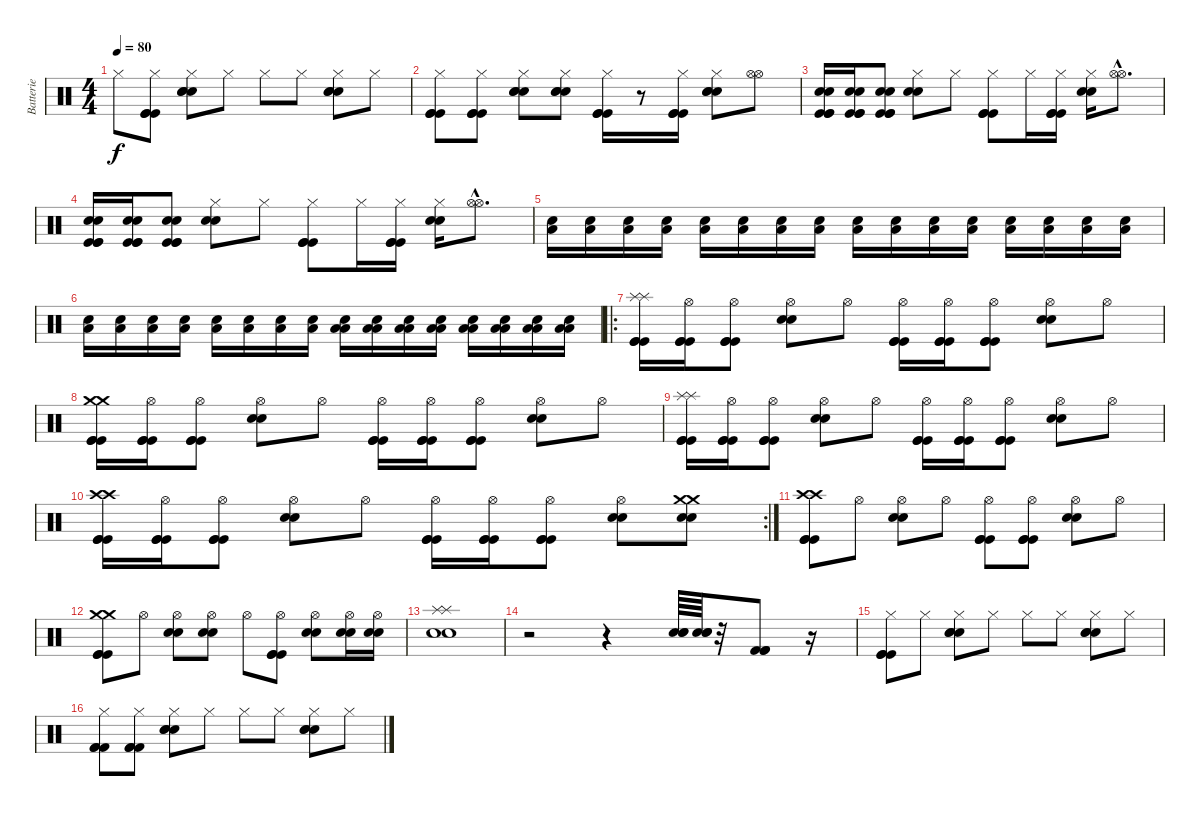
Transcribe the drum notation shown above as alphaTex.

\track ("Batterie" "Batterie") {instrument percussion}
\staff {score}
\articulation defaults
\ts (4 4)
\tempo 80
\clef neutral
\ks c "Hi-Hat (closed)".8{dy f}
("Hi-Hat (closed)" "Kick (hit)" "Kick (hit)" "Kick (hit)").8 ("Hi-Hat (closed)" "Snare (hit) 2" "Snare (hit) 2" "Snare (hit) 2").8 "Hi-Hat (closed)".8 "Hi-Hat (closed)".8 "Hi-Hat (closed)".8 ("Hi-Hat (closed)" "Snare (hit) 2" "Snare (hit) 2" "Snare (hit) 2").8 "Hi-Hat (closed)".8 |
("Hi-Hat (closed)" "Kick (hit)" "Kick (hit)" "Kick (hit)").8 ("Hi-Hat (closed)" "Kick (hit)" "Kick (hit)" "Kick (hit)").8 ("Hi-Hat (closed)" "Snare (hit) 2" "Snare (hit) 2" "Snare (hit) 2").8 ("Hi-Hat (closed)" "Snare (hit) 2" "Snare (hit) 2" "Snare (hit) 2").8 ("Hi-Hat (closed)" "Kick (hit)" "Kick (hit)" "Kick (hit)").16 r.8 ("Hi-Hat (closed)" "Kick (hit)" "Kick (hit)" "Kick (hit)").16 ("Hi-Hat (closed)" "Snare (hit) 2" "Snare (hit) 2" "Snare (hit) 2").8 ("Hi-Hat (open)" "Hi-Hat (open)").8 |
("Kick (hit)" "Snare (hit) 2" "Kick (hit)" "Snare (hit) 2" "Kick (hit)").16 ("Kick (hit)" "Snare (hit) 2" "Kick (hit)" "Snare (hit) 2" "Kick (hit)").16 ("Kick (hit)" "Snare (hit) 2" "Kick (hit)" "Snare (hit) 2" "Kick (hit)").8 ("Snare (hit) 2" "Hi-Hat (closed)" "Snare (hit) 2").8 "Hi-Hat (closed)".8 ("Kick (hit)" "Hi-Hat (closed)" "Kick (hit)" "Kick (hit)").8 "Hi-Hat (closed)".16 ("Kick (hit)" "Hi-Hat (closed)" "Kick (hit)" "Kick (hit)").16 ("Snare (hit) 2" "Hi-Hat (closed)" "Snare (hit) 2").16 ("Hi-Hat (open)"{hac} "Hi-Hat (open)"{hac}).8{d} |
("Kick (hit)" "Snare (hit) 2" "Kick (hit)" "Kick (hit)" "Snare (hit) 2").16 ("Kick (hit)" "Snare (hit) 2" "Kick (hit)" "Kick (hit)" "Snare (hit) 2").16 ("Kick (hit)" "Snare (hit) 2" "Kick (hit)" "Kick (hit)" "Snare (hit) 2").8 ("Snare (hit) 2" "Hi-Hat (closed)" "Snare (hit) 2").8 "Hi-Hat (closed)".8 ("Kick (hit)" "Hi-Hat (closed)" "Kick (hit)" "Kick (hit)").8 "Hi-Hat (closed)".16 ("Kick (hit)" "Hi-Hat (closed)" "Kick (hit)" "Kick (hit)").16 ("Snare (hit) 2" "Hi-Hat (closed)" "Snare (hit) 2").16 ("Hi-Hat (open)"{hac} "Hi-Hat (open)"{hac}).8{d} |
("Snare (hit) 2" "Low Floor Tom (hit)").16 ("Snare (hit) 2" "Low Floor Tom (hit)").16 ("Snare (hit) 2" "Low Floor Tom (hit)").16 ("Snare (hit) 2" "Low Floor Tom (hit)").16 ("Snare (hit) 2" "Low Floor Tom (hit)").16 ("Snare (hit) 2" "Low Floor Tom (hit)").16 ("Snare (hit) 2" "Low Floor Tom (hit)").16 ("Snare (hit) 2" "Low Floor Tom (hit)").16 ("Snare (hit) 2" "Low Floor Tom (hit)").16 ("Snare (hit) 2" "Low Floor Tom (hit)").16 ("Snare (hit) 2" "Low Floor Tom (hit)").16 ("Snare (hit) 2" "Low Floor Tom (hit)").16 ("Snare (hit) 2" "Low Floor Tom (hit)").16 ("Snare (hit) 2" "Low Floor Tom (hit)").16 ("Snare (hit) 2" "Low Floor Tom (hit)").16 ("Snare (hit) 2" "Low Floor Tom (hit)").16 |
("Snare (hit) 2" "Low Floor Tom (hit)").16 ("Snare (hit) 2" "Low Floor Tom (hit)").16 ("Snare (hit) 2" "Low Floor Tom (hit)").16 ("Snare (hit) 2" "Low Floor Tom (hit)").16 ("Snare (hit) 2" "Low Floor Tom (hit)").16 ("Snare (hit) 2" "Low Floor Tom (hit)").16 ("Snare (hit) 2" "Low Floor Tom (hit)").16 ("Snare (hit) 2" "Low Floor Tom (hit)").16 ("Snare (hit) 2" "Low Floor Tom (hit)" "Low Floor Tom (hit)").16 ("Snare (hit) 2" "Low Floor Tom (hit)" "Low Floor Tom (hit)").16 ("Snare (hit) 2" "Low Floor Tom (hit)" "Low Floor Tom (hit)").16 ("Snare (hit) 2" "Low Floor Tom (hit)" "Low Floor Tom (hit)").16 ("Snare (hit) 2" "Low Floor Tom (hit)" "Low Floor Tom (hit)").16 ("Snare (hit) 2" "Low Floor Tom (hit)" "Low Floor Tom (hit)").16 ("Snare (hit) 2" "Low Floor Tom (hit)" "Low Floor Tom (hit)").16 ("Snare (hit) 2" "Low Floor Tom (hit)" "Low Floor Tom (hit)").16 |
\ro
("Splash (hit)" "Kick (hit)" "Kick (hit)" "Kick (hit)" "Splash (hit)").16 ("Kick (hit)" "Kick (hit)" "Kick (hit)" "Hi-Hat (open)").16 ("Kick (hit)" "Kick (hit)" "Hi-Hat (open)" "Kick (hit)").8 ("Snare (hit) 2" "Snare (hit) 2" "Hi-Hat (open)").8 "Hi-Hat (open)".8 ("Kick (hit)" "Kick (hit)" "Hi-Hat (open)" "Kick (hit)").16 ("Kick (hit)" "Hi-Hat (open)" "Kick (hit)" "Kick (hit)").16 ("Kick (hit)" "Kick (hit)" "Hi-Hat (open)" "Kick (hit)").8 ("Snare (hit) 2" "Hi-Hat (open)" "Snare (hit) 2").8 "Hi-Hat (open)".8 |
("Crash medium (hit)" "Kick (hit)" "Kick (hit)" "Kick (hit)" "Crash medium (hit)").16 ("Kick (hit)" "Kick (hit)" "Kick (hit)" "Hi-Hat (open)").16 ("Kick (hit)" "Kick (hit)" "Hi-Hat (open)" "Kick (hit)").8 ("Snare (hit) 2" "Snare (hit) 2" "Hi-Hat (open)").8 "Hi-Hat (open)".8 ("Kick (hit)" "Kick (hit)" "Hi-Hat (open)" "Kick (hit)").16 ("Kick (hit)" "Kick (hit)" "Kick (hit)" "Hi-Hat (open)").16 ("Kick (hit)" "Kick (hit)" "Hi-Hat (open)" "Kick (hit)").8 ("Snare (hit) 2" "Snare (hit) 2" "Hi-Hat (open)").8 "Hi-Hat (open)".8 |
("Splash (hit)" "Kick (hit)" "Kick (hit)" "Kick (hit)" "Splash (hit)").16 ("Kick (hit)" "Kick (hit)" "Kick (hit)" "Hi-Hat (open)").16 ("Kick (hit)" "Kick (hit)" "Hi-Hat (open)" "Kick (hit)").8 ("Snare (hit) 2" "Snare (hit) 2" "Hi-Hat (open)").8 "Hi-Hat (open)".8 ("Kick (hit)" "Kick (hit)" "Kick (hit)" "Hi-Hat (open)").16 ("Kick (hit)" "Hi-Hat (open)" "Kick (hit)" "Kick (hit)").16 ("Kick (hit)" "Kick (hit)" "Hi-Hat (open)" "Kick (hit)").8 ("Snare (hit) 2" "Snare (hit) 2" "Hi-Hat (open)").8 "Hi-Hat (open)".8 |
\rc 2
("Crash high (hit)" "Kick (hit)" "Kick (hit)" "Kick (hit)" "Crash high (hit)").16 ("Kick (hit)" "Kick (hit)" "Kick (hit)" "Hi-Hat (open)").16 ("Kick (hit)" "Kick (hit)" "Hi-Hat (open)" "Kick (hit)").8 ("Snare (hit) 2" "Snare (hit) 2" "Hi-Hat (open)").8 "Hi-Hat (open)".8 ("Kick (hit)" "Kick (hit)" "Hi-Hat (open)" "Kick (hit)").16 ("Kick (hit)" "Kick (hit)" "Kick (hit)" "Hi-Hat (open)").16 ("Kick (hit)" "Kick (hit)" "Hi-Hat (open)" "Kick (hit)").8 ("Snare (hit) 2" "Snare (hit) 2" "Hi-Hat (open)").8 ("Snare (hit) 2" "Snare (hit) 2" "Crash medium (hit)" "Crash medium (hit)").8 |
("Crash high (hit)" "Kick (hit)" "Kick (hit)" "Kick (hit)" "Crash high (hit)").8 "Hi-Hat (open)".8 ("Hi-Hat (open)" "Snare (hit) 2" "Snare (hit) 2").8 "Hi-Hat (open)".8 ("Hi-Hat (open)" "Kick (hit)" "Kick (hit)" "Kick (hit)").8 ("Hi-Hat (open)" "Kick (hit)" "Kick (hit)" "Kick (hit)").8 ("Hi-Hat (open)" "Snare (hit) 2" "Snare (hit) 2").8 "Hi-Hat (open)".8 |
("Crash medium (hit)" "Kick (hit)" "Kick (hit)" "Kick (hit)" "Crash medium (hit)").8 "Hi-Hat (open)".8 ("Hi-Hat (open)" "Snare (hit) 2" "Snare (hit) 2").8 ("Hi-Hat (open)" "Snare (hit) 2" "Snare (hit) 2").8 "Hi-Hat (open)".8 ("Hi-Hat (open)" "Kick (hit)" "Kick (hit)" "Kick (hit)").8 ("Hi-Hat (open)" "Snare (hit) 2" "Snare (hit) 2").8 ("Hi-Hat (open)" "Snare (hit) 2" "Snare (hit) 2").16 ("Hi-Hat (open)" "Snare (hit) 2" "Snare (hit) 2").16 |
("Splash (hit)" "Snare (hit) 2" "Snare (hit) 2" "Splash (hit)").1 |
r.2 r.4 ("Snare (hit) 2" "Snare (hit) 2" "Snare (hit) 2").64 ("Snare (hit) 2" "Snare (hit) 2" "Snare (hit) 2").64 r.32 ("Kick (hit) 2" "Kick (hit) 2" "Kick (hit) 2").8 r.16 |
("Hi-Hat (closed)" "Kick (hit)" "Kick (hit)" "Kick (hit)").8 "Hi-Hat (closed)".8 ("Hi-Hat (closed)" "Snare (hit) 2" "Snare (hit) 2" "Snare (hit) 2").8 "Hi-Hat (closed)".8 "Hi-Hat (closed)".8 "Hi-Hat (closed)".8 ("Hi-Hat (closed)" "Snare (hit) 2" "Snare (hit) 2" "Snare (hit) 2").8 "Hi-Hat (closed)".8 |
("Hi-Hat (closed)" "Kick (hit) 2" "Kick (hit) 2" "Kick (hit) 2").8 ("Hi-Hat (closed)" "Kick (hit) 2" "Kick (hit) 2" "Kick (hit) 2").8 ("Hi-Hat (closed)" "Electric Snare (hit)" "Electric Snare (hit)" "Electric Snare (hit)").8 "Hi-Hat (closed)".8 "Hi-Hat (closed)".8 "Hi-Hat (closed)".8 ("Hi-Hat (closed)" "Snare (hit) 2" "Snare (hit) 2" "Snare (hit) 2").8 "Hi-Hat (closed)".8
